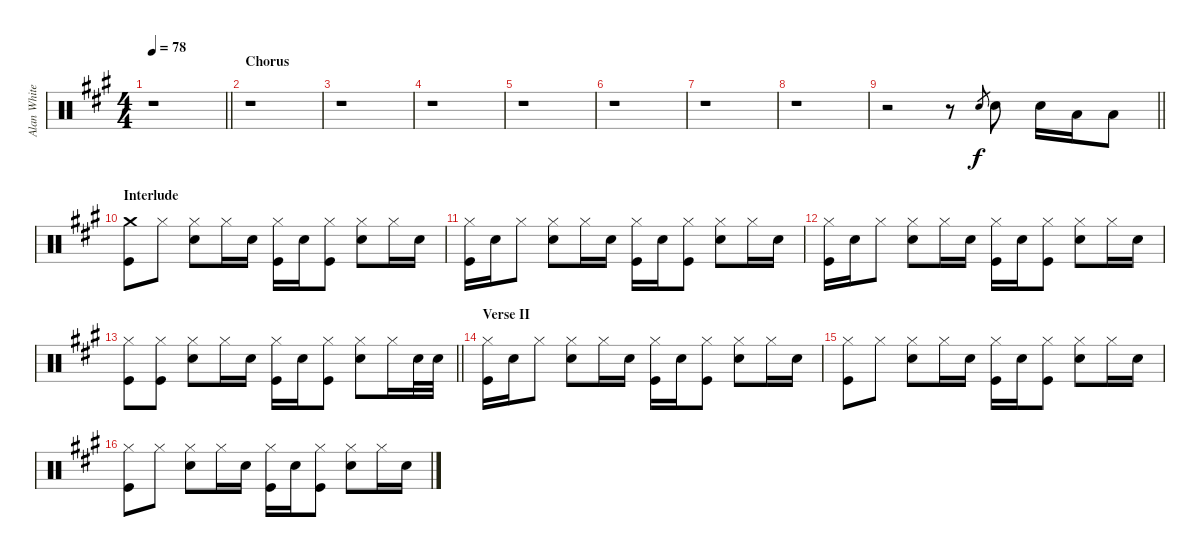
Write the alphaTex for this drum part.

\track ("Alan White (Drums)" "Alan White") {instrument percussion}
\staff {score}
\articulation defaults
\ts (4 4)
\tempo 78
\clef neutral
\barLineRight lightlight
\ks a
r.1{dy f} |
\section ("" "Chorus")
r.1 |
r.1 |
r.1 |
r.1 |
r.1 |
r.1 |
r.1 |
\barLineRight lightlight
r.2 r.8 "Snare (hit) 2".8{gr} "Snare (hit) 2".8 "Snare (hit) 2".16 "Low Tom (hit)".16 "Low Tom (hit)".8 |
\section ("" "Interlude")
("Crash medium (hit)" "Kick (hit)").8 "Hi-Hat (closed)".8 ("Hi-Hat (closed)" "Snare (hit) 2").8 "Hi-Hat (closed)".16 "Snare (hit) 2".16 ("Hi-Hat (closed)" "Kick (hit)").16 "Snare (hit) 2".16 ("Hi-Hat (closed)" "Kick (hit)").8 ("Hi-Hat (closed)" "Snare (hit) 2").8 "Hi-Hat (closed)".16 "Snare (hit) 2".16 |
("Hi-Hat (closed)" "Kick (hit)").16 "Snare (hit) 2".16 "Hi-Hat (closed)".8 ("Hi-Hat (closed)" "Snare (hit) 2").8 "Hi-Hat (closed)".16 "Snare (hit) 2".16 ("Hi-Hat (closed)" "Kick (hit)").16 "Snare (hit) 2".16 ("Hi-Hat (closed)" "Kick (hit)").8 ("Hi-Hat (closed)" "Snare (hit) 2").8 "Hi-Hat (closed)".16 "Snare (hit) 2".16 |
("Hi-Hat (closed)" "Kick (hit)").16 "Snare (hit) 2".16 "Hi-Hat (closed)".8 ("Hi-Hat (closed)" "Snare (hit) 2").8 "Hi-Hat (closed)".16 "Snare (hit) 2".16 ("Hi-Hat (closed)" "Kick (hit)").16 "Snare (hit) 2".16 ("Hi-Hat (closed)" "Kick (hit)").8 ("Hi-Hat (closed)" "Snare (hit) 2").8 "Hi-Hat (closed)".16 "Snare (hit) 2".16 |
\barLineRight lightlight
("Hi-Hat (closed)" "Kick (hit)").8 ("Hi-Hat (closed)" "Kick (hit)").8 ("Hi-Hat (closed)" "Snare (hit) 2").8 "Hi-Hat (closed)".16 "Snare (hit) 2".16 ("Hi-Hat (closed)" "Kick (hit)").16 "Snare (hit) 2".16 ("Hi-Hat (closed)" "Kick (hit)").8 ("Hi-Hat (closed)" "Snare (hit) 2").8 "Hi-Hat (closed)".16 "Snare (hit) 2".32 "Snare (hit) 2".32 |
\section ("" "Verse II")
("Hi-Hat (closed)" "Kick (hit)").16 "Snare (hit) 2".16 "Hi-Hat (closed)".8 ("Hi-Hat (closed)" "Snare (hit) 2").8 "Hi-Hat (closed)".16 "Snare (hit) 2".16 ("Hi-Hat (closed)" "Kick (hit)").16 "Snare (hit) 2".16 ("Hi-Hat (closed)" "Kick (hit)").8 ("Hi-Hat (closed)" "Snare (hit) 2").8 "Hi-Hat (closed)".16 "Snare (hit) 2".16 |
("Hi-Hat (closed)" "Kick (hit)").8 "Hi-Hat (closed)".8 ("Hi-Hat (closed)" "Snare (hit) 2").8 "Hi-Hat (closed)".16 "Snare (hit) 2".16 ("Hi-Hat (closed)" "Kick (hit)").16 "Snare (hit) 2".16 ("Hi-Hat (closed)" "Kick (hit)").8 ("Hi-Hat (closed)" "Snare (hit) 2").8 "Hi-Hat (closed)".16 "Snare (hit) 2".16 |
("Hi-Hat (closed)" "Kick (hit)").8 "Hi-Hat (closed)".8 ("Hi-Hat (closed)" "Snare (hit) 2").8 "Hi-Hat (closed)".16 "Snare (hit) 2".16 ("Hi-Hat (closed)" "Kick (hit)").16 "Snare (hit) 2".16 ("Hi-Hat (closed)" "Kick (hit)").8 ("Hi-Hat (closed)" "Snare (hit) 2").8 "Hi-Hat (closed)".16 "Snare (hit) 2".16
